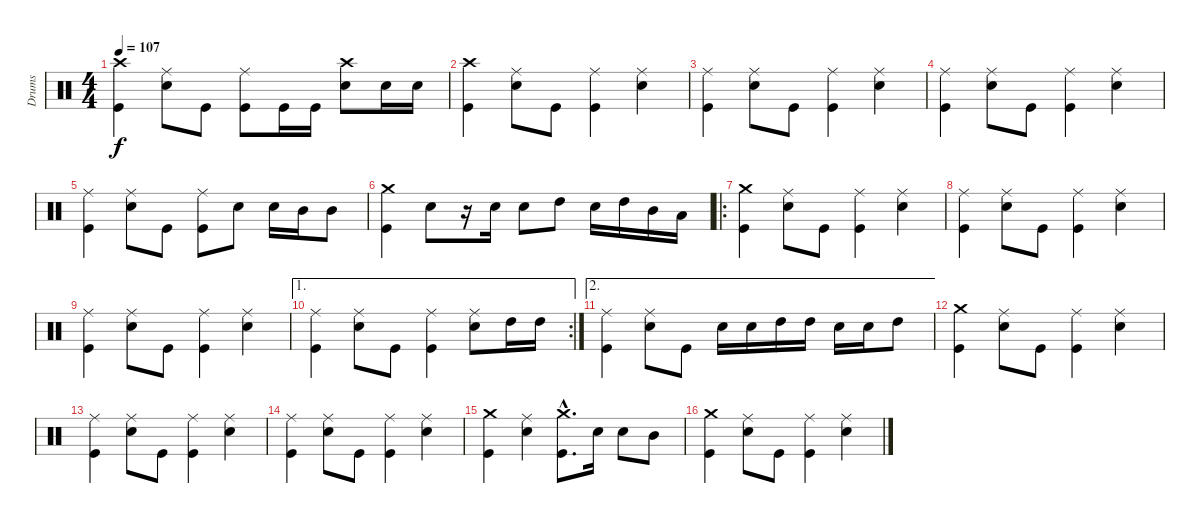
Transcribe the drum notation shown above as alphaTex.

\track ("Drums" "Drums") {instrument percussion}
\staff {score}
\articulation defaults
\ts (4 4)
\tempo 107
\clef neutral
\ks c
("Crash high (hit)" "Kick (hit)").4{dy f} ("Ride (middle)" "Snare (hit) 2").8 "Kick (hit)".8 ("Ride (middle)" "Kick (hit)").8 "Kick (hit)".16 "Kick (hit)".16 ("Crash high (hit)" "Snare (hit) 2").8 "Snare (hit) 2".16 "Snare (hit) 2".16 |
("Crash high (hit)" "Kick (hit)").4 ("Ride (middle)" "Snare (hit) 2").8 "Kick (hit)".8 ("Ride (middle)" "Kick (hit)").4 ("Ride (middle)" "Snare (hit) 2").4 |
("Ride (middle)" "Kick (hit)").4 ("Ride (middle)" "Snare (hit) 2").8 "Kick (hit)".8 ("Ride (middle)" "Kick (hit)").4 ("Ride (middle)" "Snare (hit) 2").4 |
("Ride (middle)" "Kick (hit)").4 ("Ride (middle)" "Snare (hit) 2").8 "Kick (hit)".8 ("Ride (middle)" "Kick (hit)").4 ("Ride (middle)" "Snare (hit) 2").4 |
("Ride (middle)" "Kick (hit)").4 ("Ride (middle)" "Snare (hit) 2").8 "Kick (hit)".8 ("Ride (middle)" "Kick (hit)").8 "Snare (hit) 2".8 "Snare (hit) 2".16 "Mid Tom (hit)".16 "Mid Tom (hit)".8 |
("Crash medium (hit)" "Kick (hit)").4 "Snare (hit) 2".8 r.16 "Snare (hit) 2".16 "Snare (hit) 2".8 "High Tom (hit)".8 "Snare (hit) 2".16 "High Tom (hit)".16 "Mid Tom (hit)".16 "Low Tom (hit)".16 |
\ro
("Crash medium (hit)" "Kick (hit)").4 ("Ride (middle)" "Snare (hit) 2").8 "Kick (hit)".8 ("Ride (middle)" "Kick (hit)").4 ("Ride (middle)" "Snare (hit) 2").4 |
("Ride (middle)" "Kick (hit)").4 ("Ride (middle)" "Snare (hit) 2").8 "Kick (hit)".8 ("Ride (middle)" "Kick (hit)").4 ("Ride (middle)" "Snare (hit) 2").4 |
("Ride (middle)" "Kick (hit)").4 ("Ride (middle)" "Snare (hit) 2").8 "Kick (hit)".8 ("Ride (middle)" "Kick (hit)").4 ("Ride (middle)" "Snare (hit) 2").4 |
\ae 1
\rc 2
("Ride (middle)" "Kick (hit)").4 ("Ride (middle)" "Snare (hit) 2").8 "Kick (hit)".8 ("Ride (middle)" "Kick (hit)").4 ("Ride (middle)" "Snare (hit) 2").8 "High Tom (hit)".16 "High Tom (hit)".16 |
\ae 2
("Ride (middle)" "Kick (hit)").4 ("Ride (middle)" "Snare (hit) 2").8 "Kick (hit)".8 "Snare (hit) 2".16 "Snare (hit) 2".16 "High Tom (hit)".16 "High Tom (hit)".16 "Snare (hit) 2".16 "Snare (hit) 2".16 "High Tom (hit)".8 |
("Crash medium (hit)" "Kick (hit)").4 ("Ride (middle)" "Snare (hit) 2").8 "Kick (hit)".8 ("Ride (middle)" "Kick (hit)").4 ("Ride (middle)" "Snare (hit) 2").4 |
("Ride (middle)" "Kick (hit)").4 ("Ride (middle)" "Snare (hit) 2").8 "Kick (hit)".8 ("Ride (middle)" "Kick (hit)").4 ("Ride (middle)" "Snare (hit) 2").4 |
("Ride (middle)" "Kick (hit)").4 ("Ride (middle)" "Snare (hit) 2").8 "Kick (hit)".8 ("Ride (middle)" "Kick (hit)").4 ("Ride (middle)" "Snare (hit) 2").4 |
("Crash medium (hit)" "Kick (hit)").4 ("Ride (middle)" "Snare (hit) 2").4 ("Crash medium (hit)"{hac} "Kick (hit)"{hac}).8{d} "Snare (hit) 2".16 "Snare (hit) 2".8 "Mid Tom (hit)".8 |
("Crash medium (hit)" "Kick (hit)").4 ("Ride (middle)" "Snare (hit) 2").8 "Kick (hit)".8 ("Ride (middle)" "Kick (hit)").4 ("Ride (middle)" "Snare (hit) 2").4
